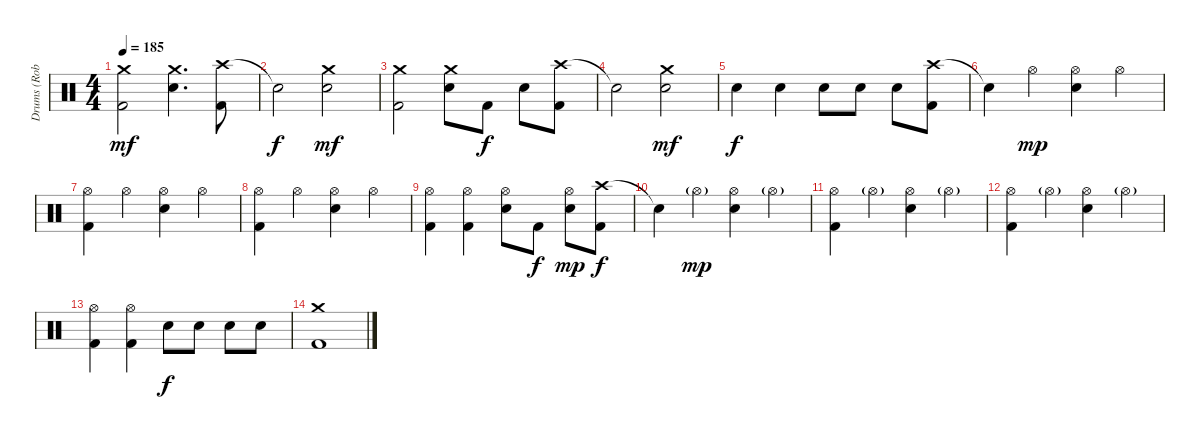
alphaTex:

\track ("Drums (Robert Ortiz)" "Drums (Rob") {instrument percussion}
\staff {score}
\articulation defaults
\ts (4 4)
\tempo 185
\clef neutral
\ks c
("Crash medium (hit)" "Kick (hit) 2").2{dy mf} ("Crash medium (hit)" "Electric Snare (hit)").4{d} ("Crash high (hit)" "Kick (hit) 2").8 |
"Snare (hit)"{t}.2{dy f} ("Crash medium (hit)" "Electric Snare (hit)").2{dy mf} |
("Crash medium (hit)" "Kick (hit) 2").2 ("Crash medium (hit)" "Electric Snare (hit)").8 "Kick (hit) 2".8{dy f} "Electric Snare (hit)".8 ("Crash high (hit)" "Kick (hit) 2").8 |
"Snare (hit)"{t}.2 ("Crash medium (hit)" "Electric Snare (hit)").2{dy mf} |
"Electric Snare (hit)".4{dy f} "Electric Snare (hit)".4 "Electric Snare (hit)".8 "Electric Snare (hit)".8 "Electric Snare (hit)".8 ("Crash high (hit)" "Kick (hit) 2").8 |
"Snare (hit)"{t}.4 "Hi-Hat (open)".4{dy mp} ("Hi-Hat (open)" "Electric Snare (hit)").4 "Hi-Hat (open)".4 |
("Hi-Hat (open)" "Kick (hit) 2").4 "Hi-Hat (open)".4 ("Hi-Hat (open)" "Electric Snare (hit)").4 "Hi-Hat (open)".4 |
("Hi-Hat (open)" "Kick (hit) 2").4 "Hi-Hat (open)".4 ("Hi-Hat (open)" "Electric Snare (hit)").4 "Hi-Hat (open)".4 |
("Hi-Hat (open)" "Kick (hit) 2").4 ("Hi-Hat (open)" "Kick (hit) 2").4 ("Hi-Hat (open)" "Electric Snare (hit)").8 "Kick (hit) 2".8{dy f} ("Hi-Hat (open)" "Electric Snare (hit)").8{dy mp} ("Crash high (hit)" "Kick (hit) 2").8{dy f} |
"Snare (hit)"{t}.4 "Hi-Hat (open)"{g}.4{dy mp} ("Hi-Hat (open)" "Electric Snare (hit)").4 "Hi-Hat (open)"{g}.4 |
("Hi-Hat (open)" "Kick (hit) 2").4 "Hi-Hat (open)"{g}.4 ("Hi-Hat (open)" "Electric Snare (hit)").4 "Hi-Hat (open)"{g}.4 |
("Hi-Hat (open)" "Kick (hit) 2").4 "Hi-Hat (open)"{g}.4 ("Hi-Hat (open)" "Electric Snare (hit)").4 "Hi-Hat (open)"{g}.4 |
("Hi-Hat (open)" "Kick (hit) 2").4 ("Hi-Hat (open)" "Kick (hit) 2").4 "Electric Snare (hit)".8{dy f} "Electric Snare (hit)".8 "Electric Snare (hit)".8 "Electric Snare (hit)".8 |
("Crash medium (hit)" "Kick (hit) 2").1
